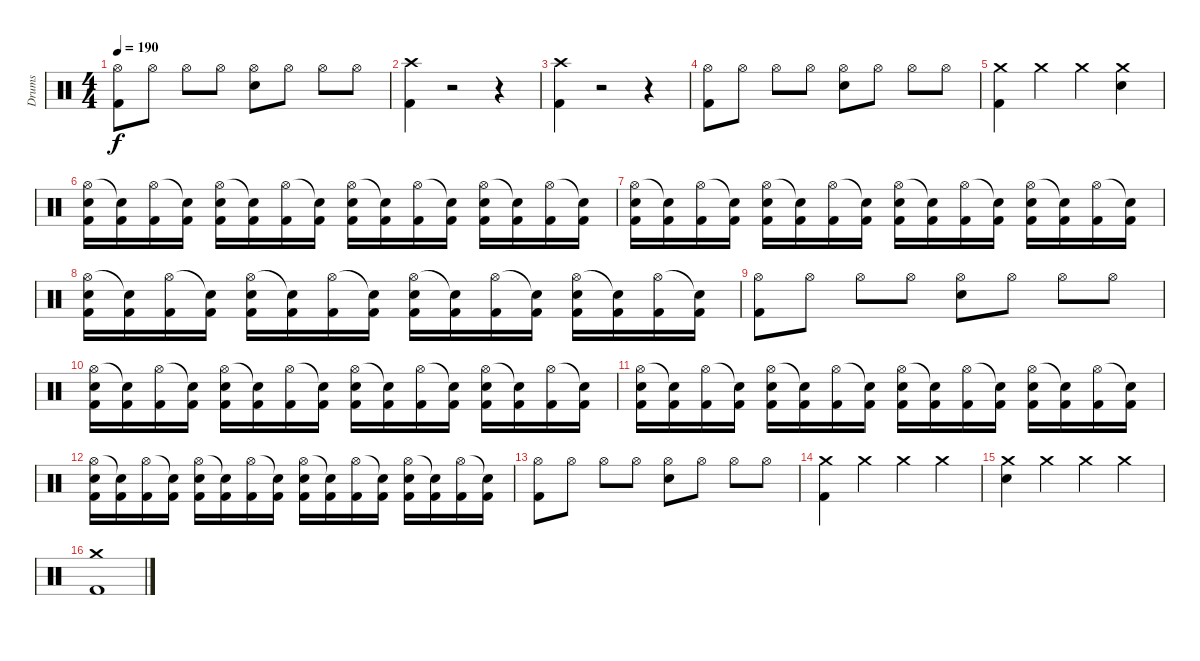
\track ("Drums" "Drums") {instrument percussion}
\staff {score}
\articulation defaults
\ts (4 4)
\tempo 190
\clef neutral
\ks c
("Hi-Hat (open)" "Kick (hit) 2").8{dy f} "Hi-Hat (open)".8 "Hi-Hat (open)".8 "Hi-Hat (open)".8 ("Hi-Hat (open)" "Electric Snare (hit)").8 "Hi-Hat (open)".8 "Hi-Hat (open)".8 "Hi-Hat (open)".8 |
("Crash high (hit)" "Kick (hit) 2").4 r.2 r.4 |
("Crash high (hit)" "Kick (hit) 2").4 r.2 r.4 |
("Hi-Hat (open)" "Kick (hit) 2").8 "Hi-Hat (open)".8 "Hi-Hat (open)".8 "Hi-Hat (open)".8 ("Hi-Hat (open)" "Electric Snare (hit)").8 "Hi-Hat (open)".8 "Hi-Hat (open)".8 "Hi-Hat (open)".8 |
("Crash medium (hit)" "Kick (hit) 2").4 "Crash medium (hit)".4 "Crash medium (hit)".4 ("Crash medium (hit)" "Electric Snare (hit)").4 |
("Hi-Hat (open)" "Electric Snare (hit)" "Kick (hit) 2").16 ("Snare (hit)"{t} "Kick (hit) 2").16 ("Hi-Hat (open)" "Kick (hit) 2").16 ("Snare (hit)"{t} "Kick (hit) 2").16 ("Hi-Hat (open)" "Electric Snare (hit)" "Kick (hit) 2").16 ("Snare (hit)"{t} "Kick (hit) 2").16 ("Hi-Hat (open)" "Kick (hit) 2").16 ("Snare (hit)"{t} "Kick (hit) 2").16 ("Hi-Hat (open)" "Electric Snare (hit)" "Kick (hit) 2").16 ("Snare (hit)"{t} "Kick (hit) 2").16 ("Hi-Hat (open)" "Kick (hit) 2").16 ("Snare (hit)"{t} "Kick (hit) 2").16 ("Hi-Hat (open)" "Electric Snare (hit)" "Kick (hit) 2").16 ("Snare (hit)"{t} "Kick (hit) 2").16 ("Hi-Hat (open)" "Kick (hit) 2").16 ("Snare (hit)"{t} "Kick (hit) 2").16 |
("Hi-Hat (open)" "Electric Snare (hit)" "Kick (hit) 2").16 ("Snare (hit)"{t} "Kick (hit) 2").16 ("Hi-Hat (open)" "Kick (hit) 2").16 ("Snare (hit)"{t} "Kick (hit) 2").16 ("Hi-Hat (open)" "Electric Snare (hit)" "Kick (hit) 2").16 ("Snare (hit)"{t} "Kick (hit) 2").16 ("Hi-Hat (open)" "Kick (hit) 2").16 ("Snare (hit)"{t} "Kick (hit) 2").16 ("Hi-Hat (open)" "Electric Snare (hit)" "Kick (hit) 2").16 ("Snare (hit)"{t} "Kick (hit) 2").16 ("Hi-Hat (open)" "Kick (hit) 2").16 ("Snare (hit)"{t} "Kick (hit) 2").16 ("Hi-Hat (open)" "Electric Snare (hit)" "Kick (hit) 2").16 ("Snare (hit)"{t} "Kick (hit) 2").16 ("Hi-Hat (open)" "Kick (hit) 2").16 ("Snare (hit)"{t} "Kick (hit) 2").16 |
("Hi-Hat (open)" "Electric Snare (hit)" "Kick (hit) 2").16 ("Snare (hit)"{t} "Kick (hit) 2").16 ("Hi-Hat (open)" "Kick (hit) 2").16 ("Snare (hit)"{t} "Kick (hit) 2").16 ("Hi-Hat (open)" "Electric Snare (hit)" "Kick (hit) 2").16 ("Snare (hit)"{t} "Kick (hit) 2").16 ("Hi-Hat (open)" "Kick (hit) 2").16 ("Snare (hit)"{t} "Kick (hit) 2").16 ("Hi-Hat (open)" "Electric Snare (hit)" "Kick (hit) 2").16 ("Snare (hit)"{t} "Kick (hit) 2").16 ("Hi-Hat (open)" "Kick (hit) 2").16 ("Snare (hit)"{t} "Kick (hit) 2").16 ("Hi-Hat (open)" "Electric Snare (hit)" "Kick (hit) 2").16 ("Snare (hit)"{t} "Kick (hit) 2").16 ("Hi-Hat (open)" "Kick (hit) 2").16 ("Snare (hit)"{t} "Kick (hit) 2").16 |
("Hi-Hat (open)" "Kick (hit) 2").8 "Hi-Hat (open)".8 "Hi-Hat (open)".8 "Hi-Hat (open)".8 ("Hi-Hat (open)" "Electric Snare (hit)").8 "Hi-Hat (open)".8 "Hi-Hat (open)".8 "Hi-Hat (open)".8 |
("Hi-Hat (open)" "Electric Snare (hit)" "Kick (hit) 2").16 ("Snare (hit)"{t} "Kick (hit) 2").16 ("Hi-Hat (open)" "Kick (hit) 2").16 ("Snare (hit)"{t} "Kick (hit) 2").16 ("Hi-Hat (open)" "Electric Snare (hit)" "Kick (hit) 2").16 ("Snare (hit)"{t} "Kick (hit) 2").16 ("Hi-Hat (open)" "Kick (hit) 2").16 ("Snare (hit)"{t} "Kick (hit) 2").16 ("Hi-Hat (open)" "Electric Snare (hit)" "Kick (hit) 2").16 ("Snare (hit)"{t} "Kick (hit) 2").16 ("Hi-Hat (open)" "Kick (hit) 2").16 ("Snare (hit)"{t} "Kick (hit) 2").16 ("Hi-Hat (open)" "Electric Snare (hit)" "Kick (hit) 2").16 ("Snare (hit)"{t} "Kick (hit) 2").16 ("Hi-Hat (open)" "Kick (hit) 2").16 ("Snare (hit)"{t} "Kick (hit) 2").16 |
("Hi-Hat (open)" "Electric Snare (hit)" "Kick (hit) 2").16 ("Snare (hit)"{t} "Kick (hit) 2").16 ("Hi-Hat (open)" "Kick (hit) 2").16 ("Snare (hit)"{t} "Kick (hit) 2").16 ("Hi-Hat (open)" "Electric Snare (hit)" "Kick (hit) 2").16 ("Snare (hit)"{t} "Kick (hit) 2").16 ("Hi-Hat (open)" "Kick (hit) 2").16 ("Snare (hit)"{t} "Kick (hit) 2").16 ("Hi-Hat (open)" "Electric Snare (hit)" "Kick (hit) 2").16 ("Snare (hit)"{t} "Kick (hit) 2").16 ("Hi-Hat (open)" "Kick (hit) 2").16 ("Snare (hit)"{t} "Kick (hit) 2").16 ("Hi-Hat (open)" "Electric Snare (hit)" "Kick (hit) 2").16 ("Snare (hit)"{t} "Kick (hit) 2").16 ("Hi-Hat (open)" "Kick (hit) 2").16 ("Snare (hit)"{t} "Kick (hit) 2").16 |
("Hi-Hat (open)" "Electric Snare (hit)" "Kick (hit) 2").16 ("Snare (hit)"{t} "Kick (hit) 2").16 ("Hi-Hat (open)" "Kick (hit) 2").16 ("Snare (hit)"{t} "Kick (hit) 2").16 ("Hi-Hat (open)" "Electric Snare (hit)" "Kick (hit) 2").16 ("Snare (hit)"{t} "Kick (hit) 2").16 ("Hi-Hat (open)" "Kick (hit) 2").16 ("Snare (hit)"{t} "Kick (hit) 2").16 ("Hi-Hat (open)" "Electric Snare (hit)" "Kick (hit) 2").16 ("Snare (hit)"{t} "Kick (hit) 2").16 ("Hi-Hat (open)" "Kick (hit) 2").16 ("Snare (hit)"{t} "Kick (hit) 2").16 ("Hi-Hat (open)" "Electric Snare (hit)" "Kick (hit) 2").16 ("Snare (hit)"{t} "Kick (hit) 2").16 ("Hi-Hat (open)" "Kick (hit) 2").16 ("Snare (hit)"{t} "Kick (hit) 2").16 |
("Hi-Hat (open)" "Kick (hit) 2").8 "Hi-Hat (open)".8 "Hi-Hat (open)".8 "Hi-Hat (open)".8 ("Hi-Hat (open)" "Electric Snare (hit)").8 "Hi-Hat (open)".8 "Hi-Hat (open)".8 "Hi-Hat (open)".8 |
("Crash medium (hit)" "Kick (hit) 2").4 "Crash medium (hit)".4 "Crash medium (hit)".4 "Crash medium (hit)".4 |
("Crash medium (hit)" "Electric Snare (hit)").4 "Crash medium (hit)".4 "Crash medium (hit)".4 "Crash medium (hit)".4 |
("Crash medium (hit)" "Kick (hit) 2").1
